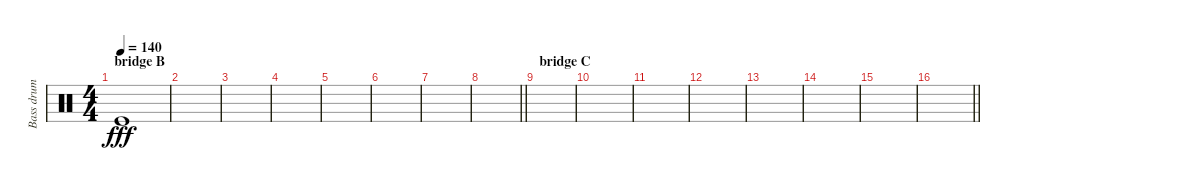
\track ("Bass drum " "Bass drum ") {instrument percussion}
\staff {score}
\articulation defaults
\ts (4 4)
\section ("" "bridge B")
\tempo 140
\clef neutral
\ks c "Kick (hit)".1{dy fff}
|
|
|
|
|
|
|
\barLineRight lightlight
|
\section ("" "bridge C")
|
|
|
|
|
|
|
\barLineRight lightlight
